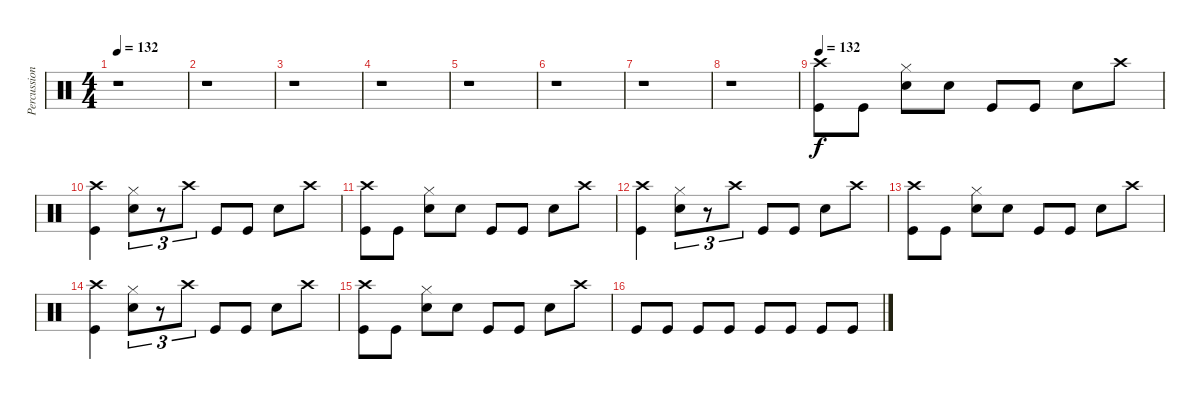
\track ("Percussion" "Percussion") {instrument percussion}
\staff {score}
\articulation defaults
\ts (4 4)
\tempo 132
\clef neutral
\ks c
r.1{dy f} |
r.1 |
r.1 |
r.1 |
r.1 |
r.1 |
r.1 |
r.1 |
\tempo 132
("Kick (hit)" "Crash high (hit)").8 "Kick (hit)".8 ("Electric Snare (hit)" "Hi-Hat (closed)").8 "Electric Snare (hit)".8 "Kick (hit)".8 "Kick (hit)".8 "Electric Snare (hit)".8 "Crash high (hit)".8 |
("Kick (hit)" "Crash high (hit)").4 ("Electric Snare (hit)" "Hi-Hat (closed)").8{tu (3 2)} r.8{tu (3 2)} "Crash high (hit)".8{tu (3 2)} "Kick (hit)".8 "Kick (hit)".8 "Electric Snare (hit)".8 "Crash high (hit)".8 |
("Kick (hit)" "Crash high (hit)").8 "Kick (hit)".8 ("Electric Snare (hit)" "Hi-Hat (closed)").8 "Electric Snare (hit)".8 "Kick (hit)".8 "Kick (hit)".8 "Electric Snare (hit)".8 "Crash high (hit)".8 |
("Kick (hit)" "Crash high (hit)").4 ("Electric Snare (hit)" "Hi-Hat (closed)").8{tu (3 2)} r.8{tu (3 2)} "Crash high (hit)".8{tu (3 2)} "Kick (hit)".8 "Kick (hit)".8 "Electric Snare (hit)".8 "Crash high (hit)".8 |
("Kick (hit)" "Crash high (hit)").8 "Kick (hit)".8 ("Electric Snare (hit)" "Hi-Hat (closed)").8 "Electric Snare (hit)".8 "Kick (hit)".8 "Kick (hit)".8 "Electric Snare (hit)".8 "Crash high (hit)".8 |
("Kick (hit)" "Crash high (hit)").4 ("Electric Snare (hit)" "Hi-Hat (closed)").8{tu (3 2)} r.8{tu (3 2)} "Crash high (hit)".8{tu (3 2)} "Kick (hit)".8 "Kick (hit)".8 "Electric Snare (hit)".8 "Crash high (hit)".8 |
("Kick (hit)" "Crash high (hit)").8 "Kick (hit)".8 ("Electric Snare (hit)" "Hi-Hat (closed)").8 "Electric Snare (hit)".8 "Kick (hit)".8 "Kick (hit)".8 "Electric Snare (hit)".8 "Crash high (hit)".8 |
"Kick (hit)".8 "Kick (hit)".8 "Kick (hit)".8 "Kick (hit)".8 "Kick (hit)".8 "Kick (hit)".8 "Kick (hit)".8 "Kick (hit)".8
